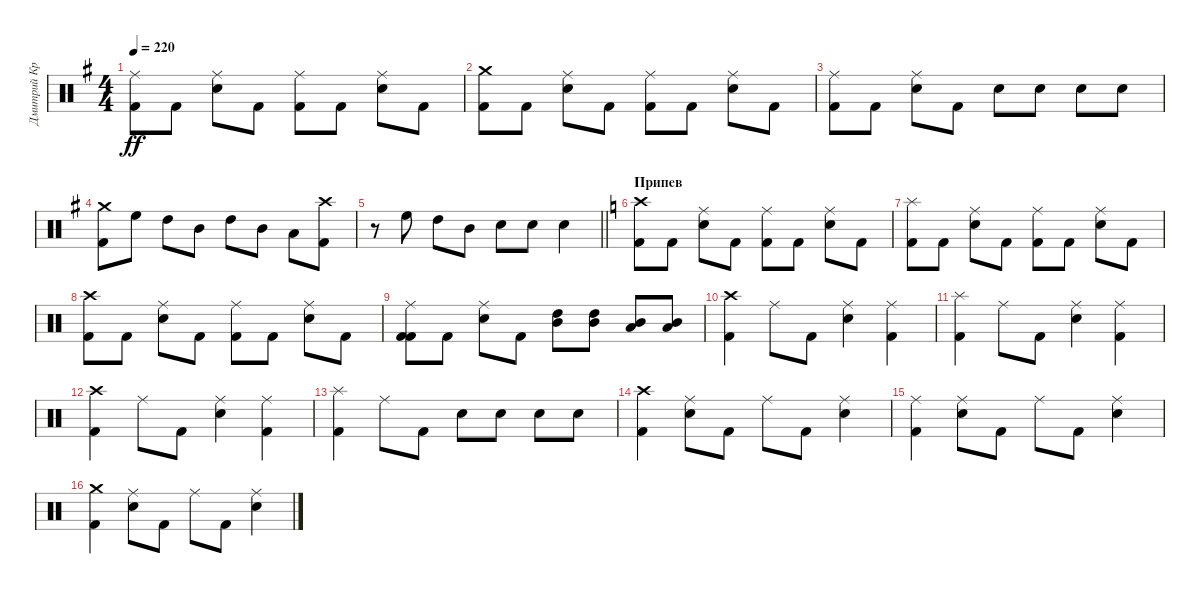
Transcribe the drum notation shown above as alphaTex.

\track ("Дмитрий Кривенков" "Дмитрий Кр") {instrument percussion}
\staff {score}
\articulation defaults
\ts (4 4)
\tempo 220
\clef neutral
\ks g
("Ride (middle)" "Kick (hit) 2").8{dy ff} "Kick (hit) 2".8 ("Ride (middle)" "Snare (hit) 2").8 "Kick (hit) 2".8 ("Ride (middle)" "Kick (hit) 2").8 "Kick (hit) 2".8 ("Ride (middle)" "Snare (hit) 2").8 "Kick (hit) 2".8 |
("Crash medium (hit)" "Kick (hit) 2").8 "Kick (hit) 2".8 ("Ride (middle)" "Snare (hit) 2").8 "Kick (hit) 2".8 ("Ride (middle)" "Kick (hit) 2").8 "Kick (hit) 2".8 ("Ride (middle)" "Snare (hit) 2").8 "Kick (hit) 2".8 |
("Ride (middle)" "Kick (hit) 2").8 "Kick (hit) 2".8 ("Ride (middle)" "Snare (hit) 2").8 "Kick (hit) 2".8 "Snare (hit) 2".8 "Snare (hit) 2".8 "Snare (hit) 2".8 "Snare (hit) 2".8 |
("Crash medium (hit)" "Kick (hit) 2").8 "High Floor Tom (hit)".8 "High Tom (hit)".8 "Mid Tom (hit)".8 "High Tom (hit)".8 "Mid Tom (hit)".8 "Low Tom (hit)".8 ("Kick (hit) 2" "Crash high (hit)").8 |
\barLineRight lightlight
r.8 "High Floor Tom (hit)".8 "High Tom (hit)".8 "Mid Tom (hit)".8 "Snare (hit) 2".8 "Snare (hit) 2".8 "Snare (hit) 2".4 |
\section ("" "Припев")
\ks c
("Crash high (hit)" "Kick (hit) 2").8 "Kick (hit) 2".8 ("Ride (middle)" "Snare (hit) 2").8 "Kick (hit) 2".8 ("Ride (middle)" "Kick (hit) 2").8 "Kick (hit) 2".8 ("Snare (hit) 2" "Ride (middle)").8 "Kick (hit) 2".8 |
("Kick (hit) 2" "Splash (hit)").8 "Kick (hit) 2".8 ("Snare (hit) 2" "Ride (middle)").8 "Kick (hit) 2".8 ("Kick (hit) 2" "Ride (middle)").8 "Kick (hit) 2".8 ("Snare (hit) 2" "Ride (middle)").8 "Kick (hit) 2".8 |
("Crash high (hit)" "Kick (hit) 2").8 "Kick (hit) 2".8 ("Ride (middle)" "Snare (hit) 2").8 "Kick (hit) 2".8 ("Ride (middle)" "Kick (hit) 2").8 "Kick (hit) 2".8 ("Snare (hit) 2" "Ride (middle)").8 "Kick (hit) 2".8 |
("Ride (middle)" "Kick (hit) 2" "Kick (hit) 2").8 "Kick (hit) 2".8 ("Ride (middle)" "Snare (hit) 2").8 "Kick (hit) 2".8 ("Mid Tom (hit)" "High Tom (hit)").8 ("Mid Tom (hit)" "High Tom (hit)").8 ("Low Tom (hit)" "Mid Tom (hit)").8 ("Low Tom (hit)" "Mid Tom (hit)").8 |
("Kick (hit) 2" "Crash high (hit)").4 "Ride (middle)".8 "Kick (hit) 2".8 ("Snare (hit) 2" "Ride (middle)").4 ("Kick (hit) 2" "Ride (middle)").4 |
("Splash (hit)" "Kick (hit) 2").4 "Ride (middle)".8 "Kick (hit) 2".8 ("Ride (middle)" "Snare (hit) 2").4 ("Ride (middle)" "Kick (hit) 2").4 |
("Kick (hit) 2" "Crash high (hit)").4 "Ride (middle)".8 "Kick (hit) 2".8 ("Snare (hit) 2" "Ride (middle)").4 ("Kick (hit) 2" "Ride (middle)").4 |
("Splash (hit)" "Kick (hit) 2").4 "Ride (middle)".8 "Kick (hit) 2".8 "Snare (hit) 2".8 "Snare (hit) 2".8 "Snare (hit) 2".8 "Snare (hit) 2".8 |
("Crash high (hit)" "Kick (hit) 2").4 ("Ride (middle)" "Snare (hit) 2").8 "Kick (hit) 2".8 "Ride (middle)".8 "Kick (hit) 2".8 ("Ride (middle)" "Snare (hit) 2").4 |
("Kick (hit) 2" "Ride (middle)").4 ("Snare (hit) 2" "Ride (middle)").8 "Kick (hit) 2".8 "Ride (middle)".8 "Kick (hit) 2".8 ("Snare (hit) 2" "Ride (middle)").4 |
("Crash medium (hit)" "Kick (hit) 2").4 ("Ride (middle)" "Snare (hit) 2").8 "Kick (hit) 2".8 "Ride (middle)".8 "Kick (hit) 2".8 ("Ride (middle)" "Snare (hit) 2").4
